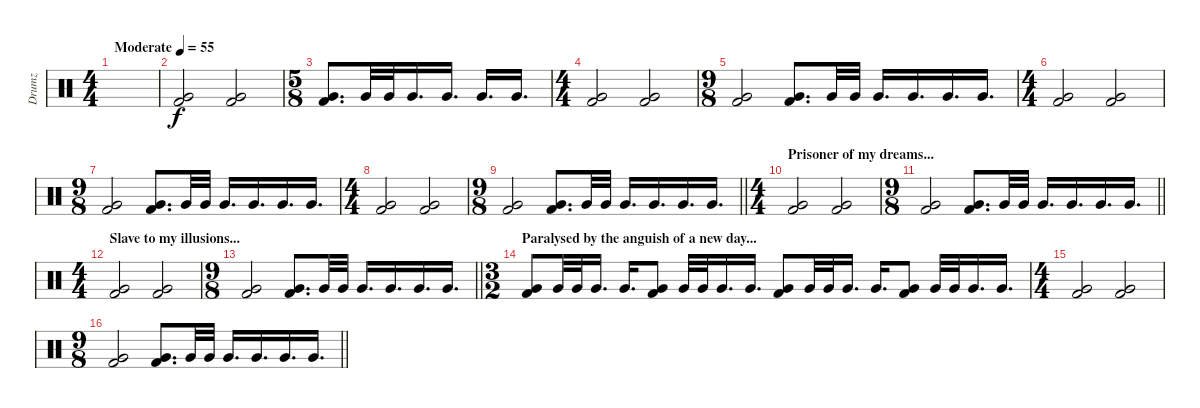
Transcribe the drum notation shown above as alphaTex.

\track ("Drumz" "Drumz") {instrument percussion}
\staff {score}
\articulation defaults
\ts (4 4)
\tempo (55 "Moderate")
\clef neutral
\ks c
|
("Very Low Tom (hit)" "Kick (hit) 2").2 ("Very Low Tom (hit)" "Kick (hit) 2").2 |
\ts (5 8)
("Very Low Tom (hit)" "Kick (hit) 2").8{d} "Very Low Tom (hit)".32 "Very Low Tom (hit)".32 "Very Low Tom (hit)".16{d} "Very Low Tom (hit)".16{d} "Very Low Tom (hit)".16{d} "Very Low Tom (hit)".16{d} |
\ts (4 4)
("Very Low Tom (hit)" "Kick (hit) 2").2 ("Very Low Tom (hit)" "Kick (hit) 2").2 |
\ts (9 8)
("Very Low Tom (hit)" "Kick (hit) 2").2 ("Very Low Tom (hit)" "Kick (hit) 2").8{d} "Very Low Tom (hit)".32 "Very Low Tom (hit)".32 "Very Low Tom (hit)".16{d} "Very Low Tom (hit)".16{d} "Very Low Tom (hit)".16{d} "Very Low Tom (hit)".16{d} |
\ts (4 4)
("Very Low Tom (hit)" "Kick (hit) 2").2 ("Very Low Tom (hit)" "Kick (hit) 2").2 |
\ts (9 8)
("Very Low Tom (hit)" "Kick (hit) 2").2 ("Very Low Tom (hit)" "Kick (hit) 2").8{d} "Very Low Tom (hit)".32 "Very Low Tom (hit)".32 "Very Low Tom (hit)".16{d} "Very Low Tom (hit)".16{d} "Very Low Tom (hit)".16{d} "Very Low Tom (hit)".16{d} |
\ts (4 4)
("Very Low Tom (hit)" "Kick (hit) 2").2 ("Very Low Tom (hit)" "Kick (hit) 2").2 |
\ts (9 8)
\barLineRight lightlight
("Very Low Tom (hit)" "Kick (hit) 2").2 ("Very Low Tom (hit)" "Kick (hit) 2").8{d} "Very Low Tom (hit)".32 "Very Low Tom (hit)".32 "Very Low Tom (hit)".16{d} "Very Low Tom (hit)".16{d} "Very Low Tom (hit)".16{d} "Very Low Tom (hit)".16{d} |
\ts (4 4)
\section ("" "Prisoner of my dreams...")
("Very Low Tom (hit)" "Kick (hit) 2").2 ("Very Low Tom (hit)" "Kick (hit) 2").2 |
\ts (9 8)
\barLineRight lightlight
("Very Low Tom (hit)" "Kick (hit) 2").2 ("Very Low Tom (hit)" "Kick (hit) 2").8{d} "Very Low Tom (hit)".32 "Very Low Tom (hit)".32 "Very Low Tom (hit)".16{d} "Very Low Tom (hit)".16{d} "Very Low Tom (hit)".16{d} "Very Low Tom (hit)".16{d} |
\ts (4 4)
\section ("" "Slave to my illusions...")
("Very Low Tom (hit)" "Kick (hit) 2").2 ("Very Low Tom (hit)" "Kick (hit) 2").2 |
\ts (9 8)
\barLineRight lightlight
("Very Low Tom (hit)" "Kick (hit) 2").2 ("Very Low Tom (hit)" "Kick (hit) 2").8{d} "Very Low Tom (hit)".32 "Very Low Tom (hit)".32 "Very Low Tom (hit)".16{d} "Very Low Tom (hit)".16{d} "Very Low Tom (hit)".16{d} "Very Low Tom (hit)".16{d} |
\ts (3 2)
\section ("" "Paralysed by the anguish of a new day...")
("Very Low Tom (hit)" "Kick (hit) 2").8 "Very Low Tom (hit)".32 "Very Low Tom (hit)".32 "Very Low Tom (hit)".16{d} "Very Low Tom (hit)".16{d} ("Very Low Tom (hit)" "Kick (hit) 2").8 "Very Low Tom (hit)".32 "Very Low Tom (hit)".32 "Very Low Tom (hit)".16{d} "Very Low Tom (hit)".16{d} ("Very Low Tom (hit)" "Kick (hit) 2").8 "Very Low Tom (hit)".32 "Very Low Tom (hit)".32 "Very Low Tom (hit)".16{d} "Very Low Tom (hit)".16{d} ("Very Low Tom (hit)" "Kick (hit) 2").8 "Very Low Tom (hit)".32 "Very Low Tom (hit)".32 "Very Low Tom (hit)".16{d} "Very Low Tom (hit)".16{d} |
\ts (4 4)
("Very Low Tom (hit)" "Kick (hit) 2").2 ("Very Low Tom (hit)" "Kick (hit) 2").2 |
\ts (9 8)
\barLineRight lightlight
("Very Low Tom (hit)" "Kick (hit) 2").2 ("Very Low Tom (hit)" "Kick (hit) 2").8{d} "Very Low Tom (hit)".32 "Very Low Tom (hit)".32 "Very Low Tom (hit)".16{d} "Very Low Tom (hit)".16{d} "Very Low Tom (hit)".16{d} "Very Low Tom (hit)".16{d}
